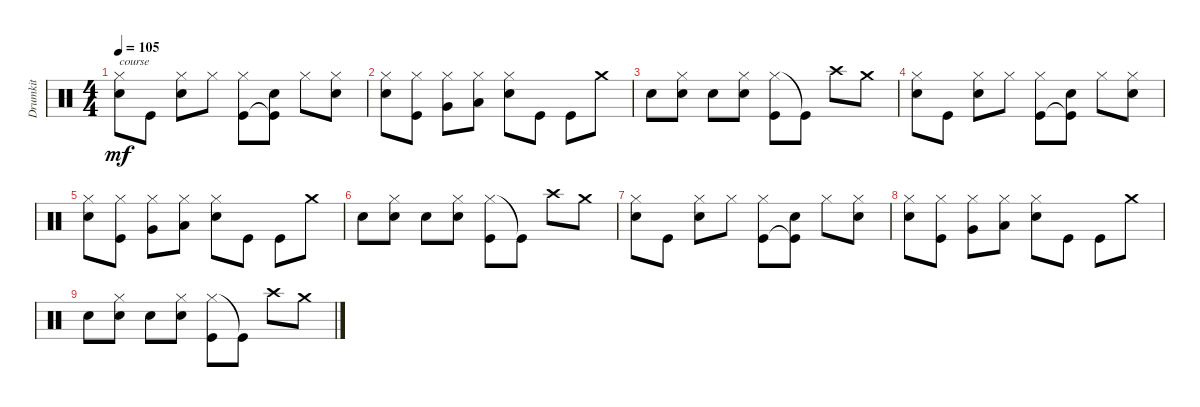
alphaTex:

\track ("Drumkit" "Drumkit") {instrument percussion}
\staff {score}
\articulation defaults
\ts (4 4)
\tempo 105
\clef neutral
\ks c
("Snare (hit) 2" "Hi-Hat (closed)").8{txt "course" dy mf} "Kick (hit)".8 ("Hi-Hat (closed)" "Snare (hit) 2").8 "Hi-Hat (closed)".8 ("Kick (hit)" "Hi-Hat (closed)").8 ("Kick (hit)"{t} "Snare (hit) 2").8 "Hi-Hat (closed)".8 ("Hi-Hat (closed)" "Snare (hit) 2").8 |
("Hi-Hat (closed)" "Snare (hit) 2").8 ("Kick (hit)" "Hi-Hat (closed)").8 ("Very Low Tom (hit)" "Hi-Hat (closed)").8 ("Low Tom (hit)" "Hi-Hat (closed)").8 ("Snare (hit) 2" "Hi-Hat (closed)").8 "Kick (hit)".8 "Kick (hit)".8 "Crash medium (hit)".8 |
"Snare (hit) 2".8 ("Snare (hit) 2" "Hi-Hat (closed)").8 "Snare (hit) 2".8 ("Snare (hit) 2" "Hi-Hat (closed)").8 ("Hi-Hat (closed)" "Kick (hit)").8 "Kick (hit)"{t}.8 "Crash high (hit)".8 "Crash medium (hit)".8 |
("Snare (hit) 2" "Hi-Hat (closed)").8 "Kick (hit)".8 ("Hi-Hat (closed)" "Snare (hit) 2").8 "Hi-Hat (closed)".8 ("Kick (hit)" "Hi-Hat (closed)").8 ("Kick (hit)"{t} "Snare (hit) 2").8 "Hi-Hat (closed)".8 ("Hi-Hat (closed)" "Snare (hit) 2").8 |
("Hi-Hat (closed)" "Snare (hit) 2").8 ("Kick (hit)" "Hi-Hat (closed)").8 ("Very Low Tom (hit)" "Hi-Hat (closed)").8 ("Low Tom (hit)" "Hi-Hat (closed)").8 ("Snare (hit) 2" "Hi-Hat (closed)").8 "Kick (hit)".8 "Kick (hit)".8 "Crash medium (hit)".8 |
"Snare (hit) 2".8 ("Snare (hit) 2" "Hi-Hat (closed)").8 "Snare (hit) 2".8 ("Snare (hit) 2" "Hi-Hat (closed)").8 ("Hi-Hat (closed)" "Kick (hit)").8 "Kick (hit)"{t}.8 "Crash high (hit)".8 "Crash medium (hit)".8 |
("Snare (hit) 2" "Hi-Hat (closed)").8 "Kick (hit)".8 ("Hi-Hat (closed)" "Snare (hit) 2").8 "Hi-Hat (closed)".8 ("Kick (hit)" "Hi-Hat (closed)").8 ("Kick (hit)"{t} "Snare (hit) 2").8 "Hi-Hat (closed)".8 ("Hi-Hat (closed)" "Snare (hit) 2").8 |
("Hi-Hat (closed)" "Snare (hit) 2").8 ("Kick (hit)" "Hi-Hat (closed)").8 ("Very Low Tom (hit)" "Hi-Hat (closed)").8 ("Low Tom (hit)" "Hi-Hat (closed)").8 ("Snare (hit) 2" "Hi-Hat (closed)").8 "Kick (hit)".8 "Kick (hit)".8 "Crash medium (hit)".8 |
"Snare (hit) 2".8 ("Snare (hit) 2" "Hi-Hat (closed)").8 "Snare (hit) 2".8 ("Snare (hit) 2" "Hi-Hat (closed)").8 ("Hi-Hat (closed)" "Kick (hit)").8 "Kick (hit)"{t}.8 "Crash high (hit)".8 "Crash medium (hit)".8
